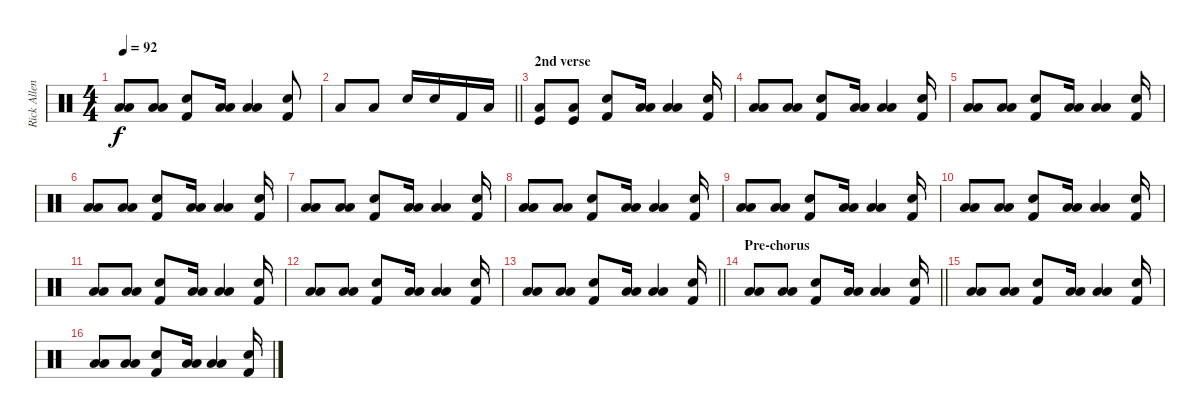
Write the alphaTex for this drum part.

\track ("Rick Allen" "Rick Allen") {instrument percussion}
\staff {score}
\articulation defaults
\ts (4 4)
\tempo 92
\clef neutral
\ks c
("Low Floor Tom (hit)" "Low Floor Tom (hit)").8{dy f} ("Low Floor Tom (hit)" "Low Floor Tom (hit)").8 ("Snare (hit) 2" "Kick (hit) 2").8 ("Low Floor Tom (hit)" "Low Floor Tom (hit)").16 ("Low Floor Tom (hit)" "Low Floor Tom (hit)").4 ("Kick (hit) 2" "Snare (hit) 2").8 |
\barLineRight lightlight "Low Floor Tom (hit)".8 "Low Floor Tom (hit)".8 "Electric Snare (hit)".16 "Snare (hit) 2".16 "Kick (hit) 2".16 "Low Floor Tom (hit)".16
|
\section ("" "2nd verse")
("Low Floor Tom (hit)" "Kick (hit)").8 ("Low Floor Tom (hit)" "Kick (hit)").8 ("Snare (hit) 2" "Kick (hit) 2").8 ("Low Floor Tom (hit)" "Low Floor Tom (hit)").16 ("Low Floor Tom (hit)" "Low Floor Tom (hit)").4 ("Kick (hit) 2" "Snare (hit) 2").16 |
("Low Floor Tom (hit)" "Low Floor Tom (hit)").8 ("Low Floor Tom (hit)" "Low Floor Tom (hit)").8 ("Snare (hit) 2" "Kick (hit) 2").8 ("Low Floor Tom (hit)" "Low Floor Tom (hit)").16 ("Low Floor Tom (hit)" "Low Floor Tom (hit)").4 ("Kick (hit) 2" "Snare (hit) 2").16 |
("Low Floor Tom (hit)" "Low Floor Tom (hit)").8 ("Low Floor Tom (hit)" "Low Floor Tom (hit)").8 ("Snare (hit) 2" "Kick (hit) 2").8 ("Low Floor Tom (hit)" "Low Floor Tom (hit)").16 ("Low Floor Tom (hit)" "Low Floor Tom (hit)").4 ("Kick (hit) 2" "Snare (hit) 2").16 |
("Low Floor Tom (hit)" "Low Floor Tom (hit)").8 ("Low Floor Tom (hit)" "Low Floor Tom (hit)").8 ("Snare (hit) 2" "Kick (hit) 2").8 ("Low Floor Tom (hit)" "Low Floor Tom (hit)").16 ("Low Floor Tom (hit)" "Low Floor Tom (hit)").4 ("Kick (hit) 2" "Snare (hit) 2").16 |
("Low Floor Tom (hit)" "Low Floor Tom (hit)").8 ("Low Floor Tom (hit)" "Low Floor Tom (hit)").8 ("Snare (hit) 2" "Kick (hit) 2").8 ("Low Floor Tom (hit)" "Low Floor Tom (hit)").16 ("Low Floor Tom (hit)" "Low Floor Tom (hit)").4 ("Kick (hit) 2" "Snare (hit) 2").16 |
("Low Floor Tom (hit)" "Low Floor Tom (hit)").8 ("Low Floor Tom (hit)" "Low Floor Tom (hit)").8 ("Snare (hit) 2" "Kick (hit) 2").8 ("Low Floor Tom (hit)" "Low Floor Tom (hit)").16 ("Low Floor Tom (hit)" "Low Floor Tom (hit)").4 ("Kick (hit) 2" "Snare (hit) 2").16 |
("Low Floor Tom (hit)" "Low Floor Tom (hit)").8 ("Low Floor Tom (hit)" "Low Floor Tom (hit)").8 ("Snare (hit) 2" "Kick (hit) 2").8 ("Low Floor Tom (hit)" "Low Floor Tom (hit)").16 ("Low Floor Tom (hit)" "Low Floor Tom (hit)").4 ("Kick (hit) 2" "Snare (hit) 2").16 |
("Low Floor Tom (hit)" "Low Floor Tom (hit)").8 ("Low Floor Tom (hit)" "Low Floor Tom (hit)").8 ("Snare (hit) 2" "Kick (hit) 2").8 ("Low Floor Tom (hit)" "Low Floor Tom (hit)").16 ("Low Floor Tom (hit)" "Low Floor Tom (hit)").4 ("Kick (hit) 2" "Snare (hit) 2").16 |
("Low Floor Tom (hit)" "Low Floor Tom (hit)").8 ("Low Floor Tom (hit)" "Low Floor Tom (hit)").8 ("Snare (hit) 2" "Kick (hit) 2").8 ("Low Floor Tom (hit)" "Low Floor Tom (hit)").16 ("Low Floor Tom (hit)" "Low Floor Tom (hit)").4 ("Kick (hit) 2" "Snare (hit) 2").16 |
("Low Floor Tom (hit)" "Low Floor Tom (hit)").8 ("Low Floor Tom (hit)" "Low Floor Tom (hit)").8 ("Snare (hit) 2" "Kick (hit) 2").8 ("Low Floor Tom (hit)" "Low Floor Tom (hit)").16 ("Low Floor Tom (hit)" "Low Floor Tom (hit)").4 ("Kick (hit) 2" "Snare (hit) 2").16 |
\barLineRight lightlight
("Low Floor Tom (hit)" "Low Floor Tom (hit)").8 ("Low Floor Tom (hit)" "Low Floor Tom (hit)").8 ("Snare (hit) 2" "Kick (hit) 2").8 ("Low Floor Tom (hit)" "Low Floor Tom (hit)").16 ("Low Floor Tom (hit)" "Low Floor Tom (hit)").4 ("Kick (hit) 2" "Snare (hit) 2").16 |
\section ("" "Pre-chorus")
\barLineRight lightlight
("Low Floor Tom (hit)" "Low Floor Tom (hit)").8 ("Low Floor Tom (hit)" "Low Floor Tom (hit)").8 ("Snare (hit) 2" "Kick (hit) 2").8 ("Low Floor Tom (hit)" "Low Floor Tom (hit)").16 ("Low Floor Tom (hit)" "Low Floor Tom (hit)").4 ("Kick (hit) 2" "Snare (hit) 2").16 |
("Low Floor Tom (hit)" "Low Floor Tom (hit)").8 ("Low Floor Tom (hit)" "Low Floor Tom (hit)").8 ("Snare (hit) 2" "Kick (hit) 2").8 ("Low Floor Tom (hit)" "Low Floor Tom (hit)").16 ("Low Floor Tom (hit)" "Low Floor Tom (hit)").4 ("Kick (hit) 2" "Snare (hit) 2").16 |
("Low Floor Tom (hit)" "Low Floor Tom (hit)").8 ("Low Floor Tom (hit)" "Low Floor Tom (hit)").8 ("Snare (hit) 2" "Kick (hit) 2").8 ("Low Floor Tom (hit)" "Low Floor Tom (hit)").16 ("Low Floor Tom (hit)" "Low Floor Tom (hit)").4 ("Kick (hit) 2" "Snare (hit) 2").16
